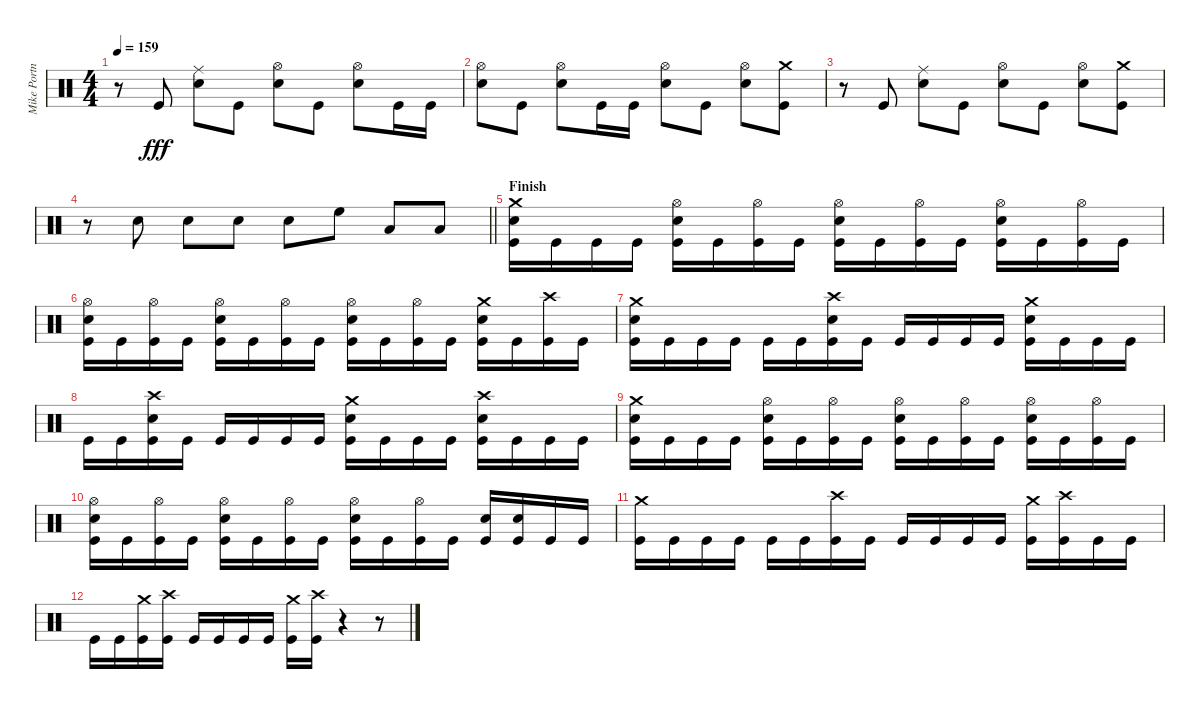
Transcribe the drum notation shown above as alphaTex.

\track ("Mike Portnoy" "Mike Portn") {instrument percussion}
\staff {score}
\articulation defaults
\ts (4 4)
\tempo 159
\clef neutral
\ks c
r.8{dy fff} "Kick (hit)".8 ("Ride (middle)" "Electric Snare (hit)").8 "Kick (hit)".8 ("Hi-Hat (open)" "Electric Snare (hit)").8 "Kick (hit)".8 ("Hi-Hat (open)" "Electric Snare (hit)").8 "Kick (hit)".16 "Kick (hit)".16 |
("Hi-Hat (open)" "Electric Snare (hit)").8 "Kick (hit)".8 ("Hi-Hat (open)" "Electric Snare (hit)").8 "Kick (hit)".16 "Kick (hit)".16 ("Hi-Hat (open)" "Electric Snare (hit)").8 "Kick (hit)".8 ("Hi-Hat (open)" "Electric Snare (hit)").8 ("Crash medium (hit)" "Kick (hit)").8 |
r.8 "Kick (hit)".8 ("Ride (middle)" "Electric Snare (hit)").8 "Kick (hit)".8 ("Hi-Hat (open)" "Electric Snare (hit)").8 "Kick (hit)".8 ("Hi-Hat (open)" "Electric Snare (hit)").8 ("Crash medium (hit)" "Kick (hit)").8 |
\barLineRight lightlight
r.8 "Electric Snare (hit)".8 "Electric Snare (hit)".8 "Electric Snare (hit)".8 "Electric Snare (hit)".8 "High Floor Tom (hit)".8 "Low Tom (hit)".8 "Low Floor Tom (hit)".8 |
\section ("" "Finish")
("Crash medium (hit)" "Electric Snare (hit)" "Kick (hit)").16 "Kick (hit)".16 "Kick (hit)".16 "Kick (hit)".16 ("Hi-Hat (open)" "Electric Snare (hit)" "Kick (hit)").16 "Kick (hit)".16 ("Hi-Hat (open)" "Kick (hit)").16 "Kick (hit)".16 ("Hi-Hat (open)" "Electric Snare (hit)" "Kick (hit)").16 "Kick (hit)".16 ("Hi-Hat (open)" "Kick (hit)").16 "Kick (hit)".16 ("Hi-Hat (open)" "Electric Snare (hit)" "Kick (hit)").16 "Kick (hit)".16 ("Hi-Hat (open)" "Kick (hit)").16 "Kick (hit)".16 |
("Hi-Hat (open)" "Electric Snare (hit)" "Kick (hit)").16 "Kick (hit)".16 ("Hi-Hat (open)" "Kick (hit)").16 "Kick (hit)".16 ("Hi-Hat (open)" "Electric Snare (hit)" "Kick (hit)").16 "Kick (hit)".16 ("Hi-Hat (open)" "Kick (hit)").16 "Kick (hit)".16 ("Hi-Hat (open)" "Electric Snare (hit)" "Kick (hit)").16 "Kick (hit)".16 ("Hi-Hat (open)" "Kick (hit)").16 "Kick (hit)".16 ("Crash medium (hit)" "Electric Snare (hit)" "Kick (hit)").16 "Kick (hit)".16 ("Crash high (hit)" "Kick (hit)").16 "Kick (hit)".16 |
("Crash medium (hit)" "Electric Snare (hit)" "Kick (hit)").16 "Kick (hit)".16 "Kick (hit)".16 "Kick (hit)".16 "Kick (hit)".16 "Kick (hit)".16 ("Crash high (hit)" "Electric Snare (hit)" "Kick (hit)").16 "Kick (hit)".16 "Kick (hit)".16 "Kick (hit)".16 "Kick (hit)".16 "Kick (hit)".16 ("Crash medium (hit)" "Electric Snare (hit)" "Kick (hit)").16 "Kick (hit)".16 "Kick (hit)".16 "Kick (hit)".16 |
"Kick (hit)".16 "Kick (hit)".16 ("Crash high (hit)" "Electric Snare (hit)" "Kick (hit)").16 "Kick (hit)".16 "Kick (hit)".16 "Kick (hit)".16 "Kick (hit)".16 "Kick (hit)".16 ("Crash medium (hit)" "Electric Snare (hit)" "Kick (hit)").16 "Kick (hit)".16 "Kick (hit)".16 "Kick (hit)".16 ("Crash high (hit)" "Electric Snare (hit)" "Kick (hit)").16 "Kick (hit)".16 "Kick (hit)".16 "Kick (hit)".16 |
("Crash medium (hit)" "Electric Snare (hit)" "Kick (hit)").16 "Kick (hit)".16 "Kick (hit)".16 "Kick (hit)".16 ("Hi-Hat (open)" "Electric Snare (hit)" "Kick (hit)").16 "Kick (hit)".16 ("Hi-Hat (open)" "Kick (hit)").16 "Kick (hit)".16 ("Hi-Hat (open)" "Electric Snare (hit)" "Kick (hit)").16 "Kick (hit)".16 ("Hi-Hat (open)" "Kick (hit)").16 "Kick (hit)".16 ("Hi-Hat (open)" "Electric Snare (hit)" "Kick (hit)").16 "Kick (hit)".16 ("Hi-Hat (open)" "Kick (hit)").16 "Kick (hit)".16 |
("Hi-Hat (open)" "Electric Snare (hit)" "Kick (hit)").16 "Kick (hit)".16 ("Hi-Hat (open)" "Kick (hit)").16 "Kick (hit)".16 ("Hi-Hat (open)" "Electric Snare (hit)" "Kick (hit)").16 "Kick (hit)".16 ("Hi-Hat (open)" "Kick (hit)").16 "Kick (hit)".16 ("Hi-Hat (open)" "Electric Snare (hit)" "Kick (hit)").16 "Kick (hit)".16 ("Hi-Hat (open)" "Kick (hit)").16 "Kick (hit)".16 ("Electric Snare (hit)" "Kick (hit)").16 ("Electric Snare (hit)" "Kick (hit)").16 "Kick (hit)".16 "Kick (hit)".16 |
("Crash medium (hit)" "Kick (hit)").16 "Kick (hit)".16 "Kick (hit)".16 "Kick (hit)".16 "Kick (hit)".16 "Kick (hit)".16 ("Crash high (hit)" "Kick (hit)").16 "Kick (hit)".16 "Kick (hit)".16 "Kick (hit)".16 "Kick (hit)".16 "Kick (hit)".16 ("Crash medium (hit)" "Kick (hit)").16 ("Crash high (hit)" "Kick (hit)").16 "Kick (hit)".16 "Kick (hit)".16 |
"Kick (hit)".16 "Kick (hit)".16 ("Crash medium (hit)" "Kick (hit)").16 ("Crash high (hit)" "Kick (hit)").16 "Kick (hit)".16 "Kick (hit)".16 "Kick (hit)".16 "Kick (hit)".16 ("Crash medium (hit)" "Kick (hit)").16 ("Crash high (hit)" "Kick (hit)").16 r.4 r.8
